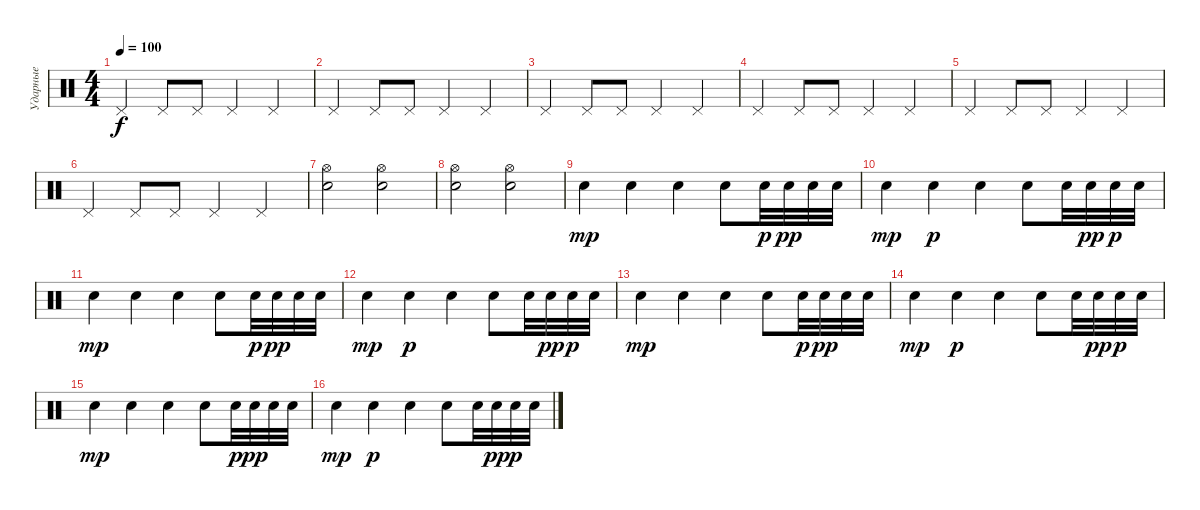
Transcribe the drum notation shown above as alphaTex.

\track ("Ударные" "Ударные") {instrument percussion}
\staff {score}
\articulation defaults
\ts (4 4)
\tempo 100
\clef neutral
\ks c "Pedal Hi-Hat (hit)".4{dy f} "Pedal Hi-Hat (hit)".8 "Pedal Hi-Hat (hit)".8 "Pedal Hi-Hat (hit)".4 "Pedal Hi-Hat (hit)".4
|
"Pedal Hi-Hat (hit)".4 "Pedal Hi-Hat (hit)".8 "Pedal Hi-Hat (hit)".8 "Pedal Hi-Hat (hit)".4 "Pedal Hi-Hat (hit)".4 |
"Pedal Hi-Hat (hit)".4 "Pedal Hi-Hat (hit)".8 "Pedal Hi-Hat (hit)".8 "Pedal Hi-Hat (hit)".4 "Pedal Hi-Hat (hit)".4 |
"Pedal Hi-Hat (hit)".4 "Pedal Hi-Hat (hit)".8 "Pedal Hi-Hat (hit)".8 "Pedal Hi-Hat (hit)".4 "Pedal Hi-Hat (hit)".4 |
"Pedal Hi-Hat (hit)".4 "Pedal Hi-Hat (hit)".8 "Pedal Hi-Hat (hit)".8 "Pedal Hi-Hat (hit)".4 "Pedal Hi-Hat (hit)".4 |
"Pedal Hi-Hat (hit)".4 "Pedal Hi-Hat (hit)".8 "Pedal Hi-Hat (hit)".8 "Pedal Hi-Hat (hit)".4 "Pedal Hi-Hat (hit)".4 |
("Hi-Hat (open)" "Electric Snare (hit)").2 ("Hi-Hat (open)" "Electric Snare (hit)").2 |
("Hi-Hat (open)" "Electric Snare (hit)").2 ("Hi-Hat (open)" "Electric Snare (hit)").2 |
"Electric Snare (hit)".4{dy mp} "Electric Snare (hit)".4 "Electric Snare (hit)".4 "Electric Snare (hit)".8 "Electric Snare (hit)".32{dy p} "Electric Snare (hit)".32{dy pp} "Electric Snare (hit)".32 "Electric Snare (hit)".32 |
"Electric Snare (hit)".4{dy mp} "Electric Snare (hit)".4{dy p} "Electric Snare (hit)".4 "Electric Snare (hit)".8 "Electric Snare (hit)".32 "Electric Snare (hit)".32{dy pp} "Electric Snare (hit)".32{dy p} "Electric Snare (hit)".32 |
"Electric Snare (hit)".4{dy mp} "Electric Snare (hit)".4 "Electric Snare (hit)".4 "Electric Snare (hit)".8 "Electric Snare (hit)".32{dy p} "Electric Snare (hit)".32{dy pp} "Electric Snare (hit)".32 "Electric Snare (hit)".32 |
"Electric Snare (hit)".4{dy mp} "Electric Snare (hit)".4{dy p} "Electric Snare (hit)".4 "Electric Snare (hit)".8 "Electric Snare (hit)".32 "Electric Snare (hit)".32{dy pp} "Electric Snare (hit)".32{dy p} "Electric Snare (hit)".32 |
"Electric Snare (hit)".4{dy mp} "Electric Snare (hit)".4 "Electric Snare (hit)".4 "Electric Snare (hit)".8 "Electric Snare (hit)".32{dy p} "Electric Snare (hit)".32{dy pp} "Electric Snare (hit)".32 "Electric Snare (hit)".32 |
"Electric Snare (hit)".4{dy mp} "Electric Snare (hit)".4{dy p} "Electric Snare (hit)".4 "Electric Snare (hit)".8 "Electric Snare (hit)".32 "Electric Snare (hit)".32{dy pp} "Electric Snare (hit)".32{dy p} "Electric Snare (hit)".32 |
"Electric Snare (hit)".4{dy mp} "Electric Snare (hit)".4 "Electric Snare (hit)".4 "Electric Snare (hit)".8 "Electric Snare (hit)".32{dy p} "Electric Snare (hit)".32{dy pp} "Electric Snare (hit)".32 "Electric Snare (hit)".32 |
"Electric Snare (hit)".4{dy mp} "Electric Snare (hit)".4{dy p} "Electric Snare (hit)".4 "Electric Snare (hit)".8 "Electric Snare (hit)".32 "Electric Snare (hit)".32{dy pp} "Electric Snare (hit)".32{dy p} "Electric Snare (hit)".32
